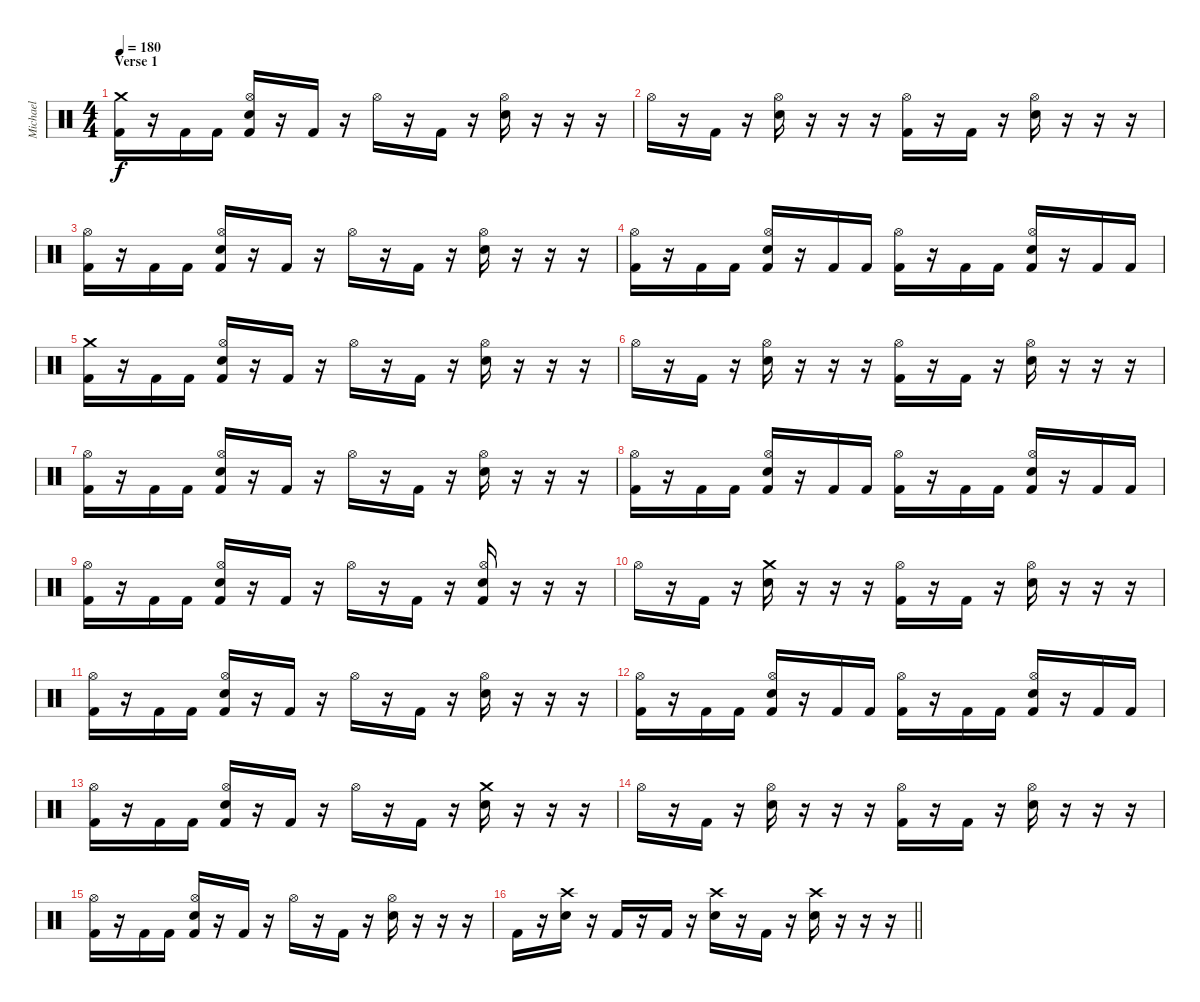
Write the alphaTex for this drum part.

\track ("Michael" "Michael") {instrument percussion}
\staff {score}
\articulation defaults
\ts (4 4)
\section ("" "Verse 1")
\tempo 180
\clef neutral
\ks c
("Crash medium (hit)" "Kick (hit) 2").16{dy f} r.16 "Kick (hit) 2".16 "Kick (hit) 2".16 ("Hi-Hat (open)" "Electric Snare (hit)" "Kick (hit) 2").16 r.16 "Kick (hit) 2".16 r.16 "Hi-Hat (open)".16 r.16 "Kick (hit) 2".16 r.16 ("Hi-Hat (open)" "Electric Snare (hit)").16 r.16 r.16 r.16 |
"Hi-Hat (open)".16 r.16 "Kick (hit) 2".16 r.16 ("Hi-Hat (open)" "Electric Snare (hit)").16 r.16 r.16 r.16 ("Hi-Hat (open)" "Kick (hit) 2").16 r.16 "Kick (hit) 2".16 r.16 ("Hi-Hat (open)" "Electric Snare (hit)").16 r.16 r.16 r.16 |
("Hi-Hat (open)" "Kick (hit) 2").16 r.16 "Kick (hit) 2".16 "Kick (hit) 2".16 ("Hi-Hat (open)" "Electric Snare (hit)" "Kick (hit) 2").16 r.16 "Kick (hit) 2".16 r.16 "Hi-Hat (open)".16 r.16 "Kick (hit) 2".16 r.16 ("Hi-Hat (open)" "Electric Snare (hit)").16 r.16 r.16 r.16 |
("Hi-Hat (open)" "Kick (hit) 2").16 r.16 "Kick (hit) 2".16 "Kick (hit) 2".16 ("Hi-Hat (open)" "Electric Snare (hit)" "Kick (hit) 2").16 r.16 "Kick (hit) 2".16 "Kick (hit) 2".16 ("Hi-Hat (open)" "Kick (hit) 2").16 r.16 "Kick (hit) 2".16 "Kick (hit) 2".16 ("Hi-Hat (open)" "Electric Snare (hit)" "Kick (hit) 2").16 r.16 "Kick (hit) 2".16 "Kick (hit) 2".16 |
("Crash medium (hit)" "Kick (hit) 2").16 r.16 "Kick (hit) 2".16 "Kick (hit) 2".16 ("Hi-Hat (open)" "Electric Snare (hit)" "Kick (hit) 2").16 r.16 "Kick (hit) 2".16 r.16 "Hi-Hat (open)".16 r.16 "Kick (hit) 2".16 r.16 ("Hi-Hat (open)" "Electric Snare (hit)").16 r.16 r.16 r.16 |
"Hi-Hat (open)".16 r.16 "Kick (hit) 2".16 r.16 ("Hi-Hat (open)" "Electric Snare (hit)").16 r.16 r.16 r.16 ("Hi-Hat (open)" "Kick (hit) 2").16 r.16 "Kick (hit) 2".16 r.16 ("Hi-Hat (open)" "Electric Snare (hit)").16 r.16 r.16 r.16 |
("Hi-Hat (open)" "Kick (hit) 2").16 r.16 "Kick (hit) 2".16 "Kick (hit) 2".16 ("Hi-Hat (open)" "Electric Snare (hit)" "Kick (hit) 2").16 r.16 "Kick (hit) 2".16 r.16 "Hi-Hat (open)".16 r.16 "Kick (hit) 2".16 r.16 ("Hi-Hat (open)" "Electric Snare (hit)").16 r.16 r.16 r.16 |
("Hi-Hat (open)" "Kick (hit) 2").16 r.16 "Kick (hit) 2".16 "Kick (hit) 2".16 ("Hi-Hat (open)" "Electric Snare (hit)" "Kick (hit) 2").16 r.16 "Kick (hit) 2".16 "Kick (hit) 2".16 ("Hi-Hat (open)" "Kick (hit) 2").16 r.16 "Kick (hit) 2".16 "Kick (hit) 2".16 ("Hi-Hat (open)" "Electric Snare (hit)" "Kick (hit) 2").16 r.16 "Kick (hit) 2".16 "Kick (hit) 2".16 |
("Hi-Hat (open)" "Kick (hit) 2").16 r.16 "Kick (hit) 2".16 "Kick (hit) 2".16 ("Hi-Hat (open)" "Electric Snare (hit)" "Kick (hit) 2").16 r.16 "Kick (hit) 2".16 r.16 "Hi-Hat (open)".16 r.16 "Kick (hit) 2".16 r.16 ("Hi-Hat (open)" "Electric Snare (hit)" "Kick (hit) 2").16 r.16 r.16 r.16 |
"Hi-Hat (open)".16 r.16 "Kick (hit) 2".16 r.16 ("Crash medium (hit)" "Electric Snare (hit)").16 r.16 r.16 r.16 ("Hi-Hat (open)" "Kick (hit) 2").16 r.16 "Kick (hit) 2".16 r.16 ("Hi-Hat (open)" "Electric Snare (hit)").16 r.16 r.16 r.16 |
("Hi-Hat (open)" "Kick (hit) 2").16 r.16 "Kick (hit) 2".16 "Kick (hit) 2".16 ("Hi-Hat (open)" "Electric Snare (hit)" "Kick (hit) 2").16 r.16 "Kick (hit) 2".16 r.16 "Hi-Hat (open)".16 r.16 "Kick (hit) 2".16 r.16 ("Hi-Hat (open)" "Electric Snare (hit)").16 r.16 r.16 r.16 |
("Hi-Hat (open)" "Kick (hit) 2").16 r.16 "Kick (hit) 2".16 "Kick (hit) 2".16 ("Hi-Hat (open)" "Electric Snare (hit)" "Kick (hit) 2").16 r.16 "Kick (hit) 2".16 "Kick (hit) 2".16 ("Hi-Hat (open)" "Kick (hit) 2").16 r.16 "Kick (hit) 2".16 "Kick (hit) 2".16 ("Hi-Hat (open)" "Electric Snare (hit)" "Kick (hit) 2").16 r.16 "Kick (hit) 2".16 "Kick (hit) 2".16 |
("Hi-Hat (open)" "Kick (hit) 2").16 r.16 "Kick (hit) 2".16 "Kick (hit) 2".16 ("Hi-Hat (open)" "Electric Snare (hit)" "Kick (hit) 2").16 r.16 "Kick (hit) 2".16 r.16 "Hi-Hat (open)".16 r.16 "Kick (hit) 2".16 r.16 ("Crash medium (hit)" "Electric Snare (hit)").16 r.16 r.16 r.16 |
"Hi-Hat (open)".16 r.16 "Kick (hit) 2".16 r.16 ("Hi-Hat (open)" "Electric Snare (hit)").16 r.16 r.16 r.16 ("Hi-Hat (open)" "Kick (hit) 2").16 r.16 "Kick (hit) 2".16 r.16 ("Hi-Hat (open)" "Electric Snare (hit)").16 r.16 r.16 r.16 |
("Hi-Hat (open)" "Kick (hit) 2").16 r.16 "Kick (hit) 2".16 "Kick (hit) 2".16 ("Hi-Hat (open)" "Electric Snare (hit)" "Kick (hit) 2").16 r.16 "Kick (hit) 2".16 r.16 "Hi-Hat (open)".16 r.16 "Kick (hit) 2".16 r.16 ("Hi-Hat (open)" "Electric Snare (hit)").16 r.16 r.16 r.16 |
\barLineRight lightlight "Kick (hit) 2".16
r.16 ("Crash high (hit)" "Electric Snare (hit)").16 r.16 "Kick (hit) 2".16 r.16 "Kick (hit) 2".16 r.16 ("Crash high (hit)" "Electric Snare (hit)").16 r.16 "Kick (hit) 2".16 r.16 ("Crash high (hit)" "Electric Snare (hit)").16 r.16 r.16 r.16
